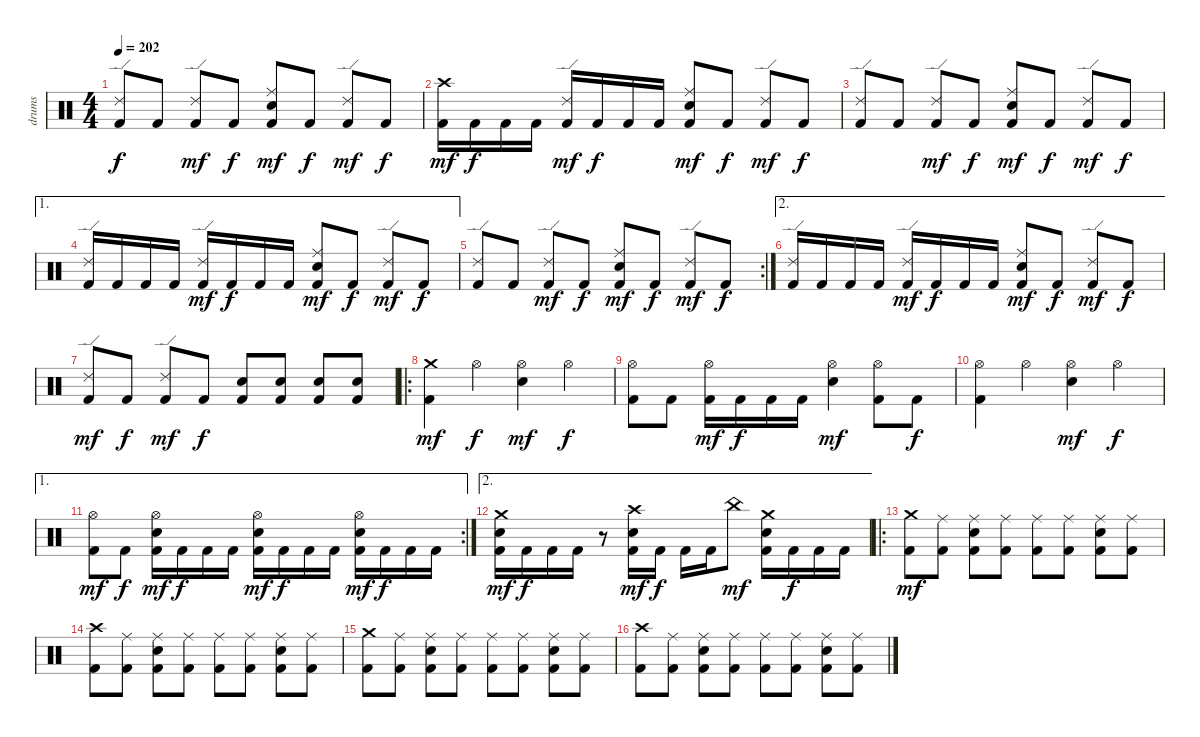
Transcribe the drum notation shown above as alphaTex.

\track ("drums" "drums") {instrument percussion}
\staff {score}
\articulation defaults
\ts (4 4)
\tempo 202
\clef neutral
\ks c
("Ride (edge) 2" "Kick (hit) 2").8{dy f} "Kick (hit) 2".8 ("Ride (edge) 2" "Kick (hit) 2").8{dy mf} "Kick (hit) 2".8{dy f} ("Ride (middle)" "Snare (hit) 2" "Kick (hit) 2").8{dy mf} "Kick (hit) 2".8{dy f} ("Ride (edge) 2" "Kick (hit) 2").8{dy mf} "Kick (hit) 2".8{dy f} |
("Crash high (hit)" "Kick (hit) 2").16{dy mf} "Kick (hit) 2".16{dy f} "Kick (hit) 2".16 "Kick (hit) 2".16 ("Ride (edge) 2" "Kick (hit) 2").16{dy mf} "Kick (hit) 2".16{dy f} "Kick (hit) 2".16 "Kick (hit) 2".16 ("Ride (middle)" "Snare (hit) 2" "Kick (hit) 2").8{dy mf} "Kick (hit) 2".8{dy f} ("Ride (edge) 2" "Kick (hit) 2").8{dy mf} "Kick (hit) 2".8{dy f} |
("Ride (edge) 2" "Kick (hit) 2").8 "Kick (hit) 2".8 ("Ride (edge) 2" "Kick (hit) 2").8{dy mf} "Kick (hit) 2".8{dy f} ("Ride (middle)" "Snare (hit) 2" "Kick (hit) 2").8{dy mf} "Kick (hit) 2".8{dy f} ("Ride (edge) 2" "Kick (hit) 2").8{dy mf} "Kick (hit) 2".8{dy f} |
\ae 1
("Ride (edge) 2" "Kick (hit) 2").16 "Kick (hit) 2".16 "Kick (hit) 2".16 "Kick (hit) 2".16 ("Ride (edge) 2" "Kick (hit) 2").16{dy mf} "Kick (hit) 2".16{dy f} "Kick (hit) 2".16 "Kick (hit) 2".16 ("Ride (middle)" "Snare (hit) 2" "Kick (hit) 2").8{dy mf} "Kick (hit) 2".8{dy f} ("Ride (edge) 2" "Kick (hit) 2").8{dy mf} "Kick (hit) 2".8{dy f} |
\rc 2
("Ride (edge) 2" "Kick (hit) 2").8 "Kick (hit) 2".8 ("Ride (edge) 2" "Kick (hit) 2").8{dy mf} "Kick (hit) 2".8{dy f} ("Ride (middle)" "Snare (hit) 2" "Kick (hit) 2").8{dy mf} "Kick (hit) 2".8{dy f} ("Ride (edge) 2" "Kick (hit) 2").8{dy mf} "Kick (hit) 2".8{dy f} |
\ae 2
("Ride (edge) 2" "Kick (hit) 2").16 "Kick (hit) 2".16 "Kick (hit) 2".16 "Kick (hit) 2".16 ("Ride (edge) 2" "Kick (hit) 2").16{dy mf} "Kick (hit) 2".16{dy f} "Kick (hit) 2".16 "Kick (hit) 2".16 ("Ride (middle)" "Snare (hit) 2" "Kick (hit) 2").8{dy mf} "Kick (hit) 2".8{dy f} ("Ride (edge) 2" "Kick (hit) 2").8{dy mf} "Kick (hit) 2".8{dy f} |
("Ride (edge) 2" "Kick (hit) 2").8{dy mf} "Kick (hit) 2".8{dy f} ("Ride (edge) 2" "Kick (hit) 2").8{dy mf} "Kick (hit) 2".8{dy f} ("Snare (hit) 2" "Kick (hit) 2").8 ("Snare (hit) 2" "Kick (hit) 2").8 ("Snare (hit) 2" "Kick (hit) 2").8 ("Snare (hit) 2" "Kick (hit) 2").8 |
\ro
("Crash medium (hit)" "Kick (hit) 2").4{dy mf} "Hi-Hat (open)".4{dy f} ("Hi-Hat (open)" "Snare (hit) 2").4{dy mf} "Hi-Hat (open)".4{dy f} |
("Hi-Hat (open)" "Kick (hit) 2").8 "Kick (hit) 2".8 ("Hi-Hat (open)" "Kick (hit) 2").16{dy mf} "Kick (hit) 2".16{dy f} "Kick (hit) 2".16 "Kick (hit) 2".16 ("Hi-Hat (open)" "Snare (hit) 2").4{dy mf} ("Hi-Hat (open)" "Kick (hit) 2").8 "Kick (hit) 2".8{dy f} |
("Hi-Hat (open)" "Kick (hit) 2").4 "Hi-Hat (open)".4 ("Hi-Hat (open)" "Snare (hit) 2").4{dy mf} "Hi-Hat (open)".4{dy f} |
\ae 1
\rc 2
("Hi-Hat (open)" "Kick (hit) 2").8{dy mf} "Kick (hit) 2".8{dy f} ("Hi-Hat (open)" "Snare (hit) 2" "Kick (hit) 2").16{dy mf} "Kick (hit) 2".16{dy f} "Kick (hit) 2".16 "Kick (hit) 2".16 ("Hi-Hat (open)" "Snare (hit) 2" "Kick (hit) 2").16{dy mf} "Kick (hit) 2".16{dy f} "Kick (hit) 2".16 "Kick (hit) 2".16 ("Hi-Hat (open)" "Snare (hit) 2" "Kick (hit) 2").16{dy mf} "Kick (hit) 2".16{dy f} "Kick (hit) 2".16 "Kick (hit) 2".16 |
\ae 2
("Crash medium (hit)" "Snare (hit) 2" "Kick (hit) 2").16{dy mf} "Kick (hit) 2".16{dy f} "Kick (hit) 2".16 "Kick (hit) 2".16 r.8 ("Crash high (hit)" "Snare (hit) 2" "Kick (hit) 2").16{dy mf} "Kick (hit) 2".16{dy f} "Kick (hit) 2".16 "Kick (hit) 2".16 "China (hit)".8{dy mf} ("Crash medium (hit)" "Snare (hit) 2" "Kick (hit) 2").16 "Kick (hit) 2".16{dy f} "Kick (hit) 2".16 "Kick (hit) 2".16 |
\ro
("Crash medium (hit)" "Kick (hit) 2").8{dy mf} ("Ride (middle)" "Kick (hit) 2").8 ("Ride (middle)" "Snare (hit) 2" "Kick (hit) 2").8 ("Ride (middle)" "Kick (hit) 2").8 ("Ride (middle)" "Kick (hit) 2").8 ("Ride (middle)" "Kick (hit) 2").8 ("Ride (middle)" "Snare (hit) 2" "Kick (hit) 2").8 ("Ride (middle)" "Kick (hit) 2").8 |
("Crash high (hit)" "Kick (hit) 2").8 ("Ride (middle)" "Kick (hit) 2").8 ("Ride (middle)" "Snare (hit) 2" "Kick (hit) 2").8 ("Ride (middle)" "Kick (hit) 2").8 ("Ride (middle)" "Kick (hit) 2").8 ("Ride (middle)" "Kick (hit) 2").8 ("Ride (middle)" "Snare (hit) 2" "Kick (hit) 2").8 ("Ride (middle)" "Kick (hit) 2").8 |
("Crash medium (hit)" "Kick (hit) 2").8 ("Ride (middle)" "Kick (hit) 2").8 ("Ride (middle)" "Snare (hit) 2" "Kick (hit) 2").8 ("Ride (middle)" "Kick (hit) 2").8 ("Ride (middle)" "Kick (hit) 2").8 ("Ride (middle)" "Kick (hit) 2").8 ("Ride (middle)" "Snare (hit) 2" "Kick (hit) 2").8 ("Ride (middle)" "Kick (hit) 2").8 |
("Crash high (hit)" "Kick (hit) 2").8 ("Ride (middle)" "Kick (hit) 2").8 ("Ride (middle)" "Snare (hit) 2" "Kick (hit) 2").8 ("Ride (middle)" "Kick (hit) 2").8 ("Ride (middle)" "Kick (hit) 2").8 ("Ride (middle)" "Kick (hit) 2").8 ("Ride (middle)" "Snare (hit) 2" "Kick (hit) 2").8 ("Ride (middle)" "Kick (hit) 2").8
